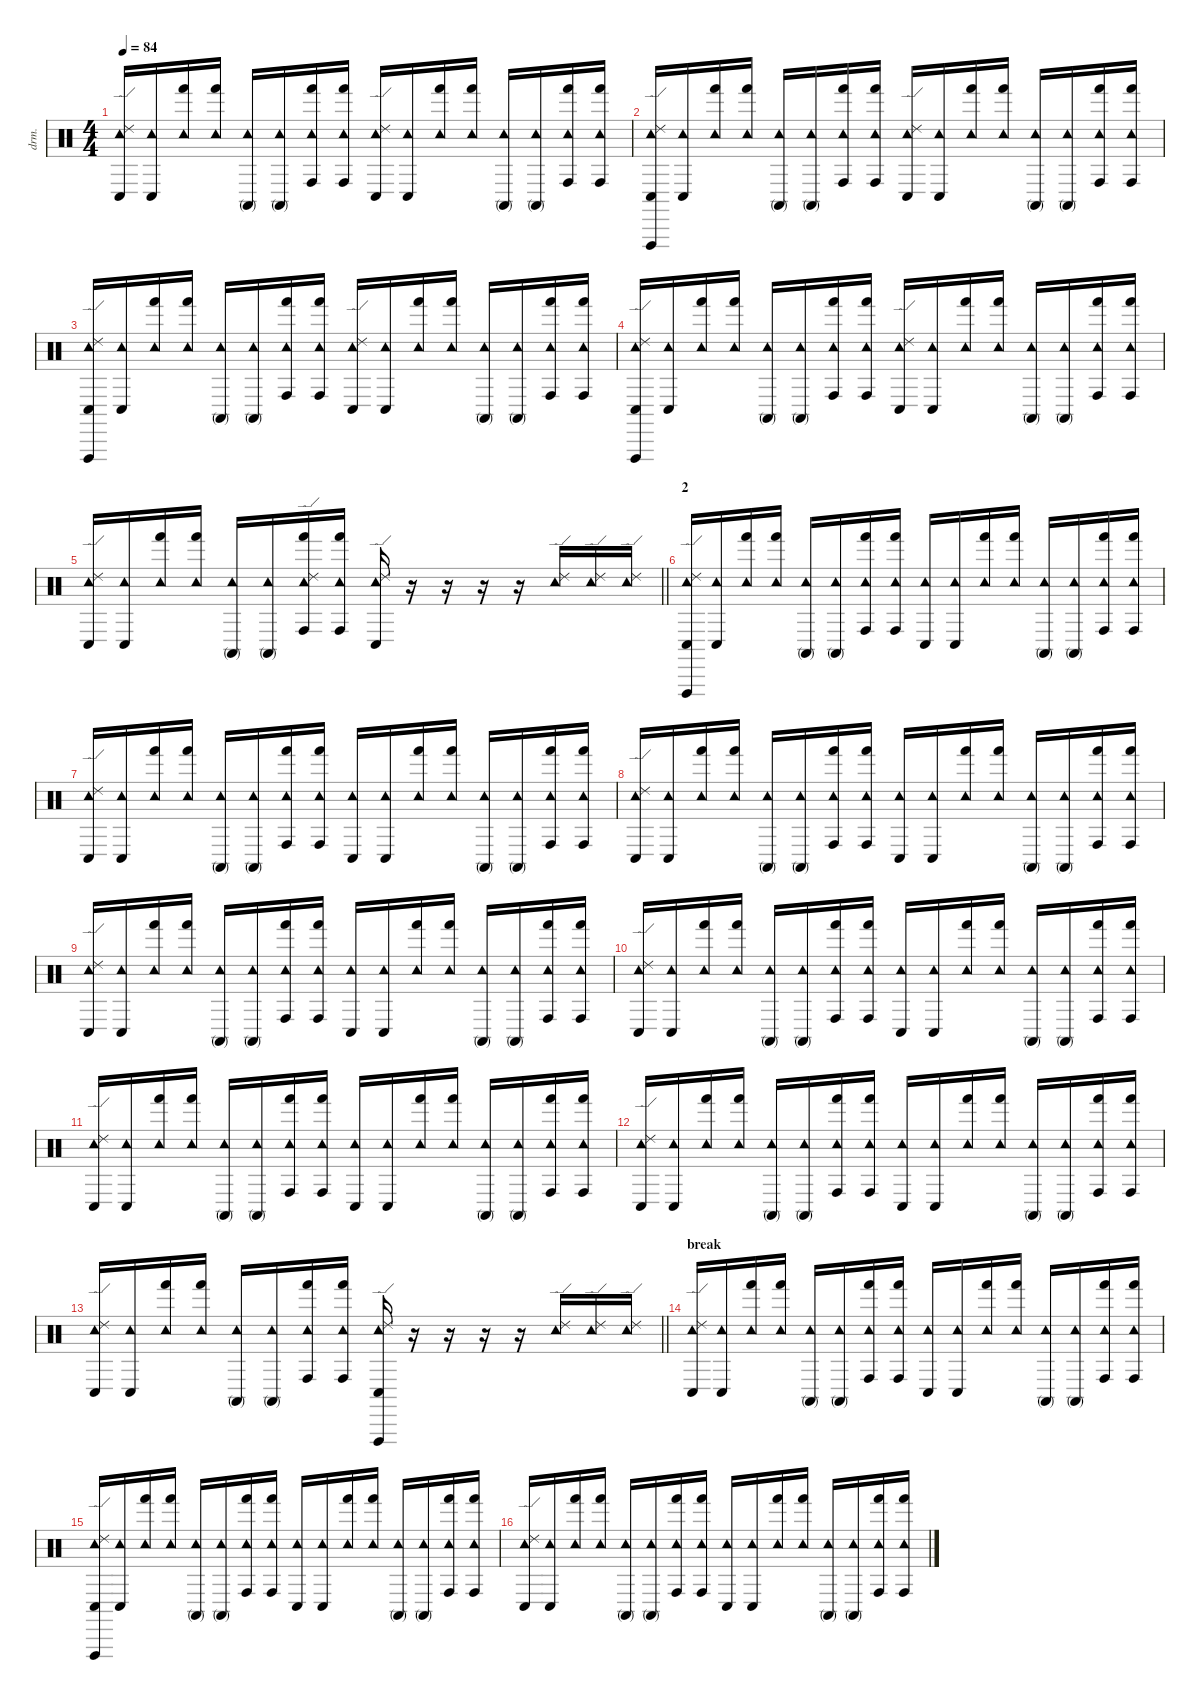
\defaultSystemsLayout 4
\hideDynamics
\bracketExtendMode nobrackets
\otherSystemsTrackNameOrientation horizontal
\track ("Conga + Tambourine" "drm.") {instrument percussion}
\staff {score}
\articulation defaults
\ts (4 4)
\tempo 84
\clef neutral
\ks c
("Conga low (hit)" "Tambourine (hit)" "Ride (edge) 2").16{dy f beam Up} ("Conga low (hit)" "Tambourine (hit)").16{beam Up} ("Hand (hit)" "Tambourine (hit)").16{beam Up} ("Hand (hit)" "Tambourine (hit)").16{beam Up} ("Conga high (mute)" "Tambourine (hit)").16{beam Up} ("Conga high (mute)" "Tambourine (hit)").16{beam Up} ("Conga high (hit)" "Hand (hit)" "Tambourine (hit)").16{beam Up} ("Conga high (hit)" "Hand (hit)" "Tambourine (hit)").16{beam Up} ("Conga low (hit)" "Tambourine (hit)" "Ride (edge) 2").16{beam Up} ("Conga low (hit)" "Tambourine (hit)").16{beam Up} ("Hand (hit)" "Tambourine (hit)").16{beam Up} ("Hand (hit)" "Tambourine (hit)").16{beam Up} ("Conga high (mute)" "Tambourine (hit)").16{beam Up} ("Conga high (mute)" "Tambourine (hit)").16{beam Up} ("Conga high (hit)" "Hand (hit)" "Tambourine (hit)").16{beam Up} ("Conga high (hit)" "Hand (hit)" "Tambourine (hit)").16{beam Up} |
("Conga low (hit)" "Vibraslap (hit)" "Tambourine (hit)" "Ride (edge) 2").16{beam Up} ("Conga low (hit)" "Tambourine (hit)").16{beam Up} ("Hand (hit)" "Tambourine (hit)").16{beam Up} ("Hand (hit)" "Tambourine (hit)").16{beam Up} ("Conga high (mute)" "Tambourine (hit)").16{beam Up} ("Conga high (mute)" "Tambourine (hit)").16{beam Up} ("Conga high (hit)" "Hand (hit)" "Tambourine (hit)").16{beam Up} ("Conga high (hit)" "Hand (hit)" "Tambourine (hit)").16{beam Up} ("Conga low (hit)" "Tambourine (hit)" "Ride (edge) 2").16{beam Up} ("Conga low (hit)" "Tambourine (hit)").16{beam Up} ("Hand (hit)" "Tambourine (hit)").16{beam Up} ("Hand (hit)" "Tambourine (hit)").16{beam Up} ("Conga high (mute)" "Tambourine (hit)").16{beam Up} ("Conga high (mute)" "Tambourine (hit)").16{beam Up} ("Conga high (hit)" "Hand (hit)" "Tambourine (hit)").16{beam Up} ("Conga high (hit)" "Hand (hit)" "Tambourine (hit)").16{beam Up} |
("Conga low (hit)" "Vibraslap (hit)" "Tambourine (hit)" "Ride (edge) 2").16{beam Up} ("Conga low (hit)" "Tambourine (hit)").16{beam Up} ("Hand (hit)" "Tambourine (hit)").16{beam Up} ("Hand (hit)" "Tambourine (hit)").16{beam Up} ("Conga high (mute)" "Tambourine (hit)").16{beam Up} ("Conga high (mute)" "Tambourine (hit)").16{beam Up} ("Conga high (hit)" "Hand (hit)" "Tambourine (hit)").16{beam Up} ("Conga high (hit)" "Hand (hit)" "Tambourine (hit)").16{beam Up} ("Conga low (hit)" "Tambourine (hit)" "Ride (edge) 2").16{beam Up} ("Conga low (hit)" "Tambourine (hit)").16{beam Up} ("Hand (hit)" "Tambourine (hit)").16{beam Up} ("Hand (hit)" "Tambourine (hit)").16{beam Up} ("Conga high (mute)" "Tambourine (hit)").16{beam Up} ("Conga high (mute)" "Tambourine (hit)").16{beam Up} ("Conga high (hit)" "Hand (hit)" "Tambourine (hit)").16{beam Up} ("Conga high (hit)" "Hand (hit)" "Tambourine (hit)").16{beam Up} |
("Conga low (hit)" "Vibraslap (hit)" "Tambourine (hit)" "Ride (edge) 2").16{beam Up} ("Conga low (hit)" "Tambourine (hit)").16{beam Up} ("Hand (hit)" "Tambourine (hit)").16{beam Up} ("Hand (hit)" "Tambourine (hit)").16{beam Up} ("Conga high (mute)" "Tambourine (hit)").16{beam Up} ("Conga high (mute)" "Tambourine (hit)").16{beam Up} ("Conga high (hit)" "Hand (hit)" "Tambourine (hit)").16{beam Up} ("Conga high (hit)" "Hand (hit)" "Tambourine (hit)").16{beam Up} ("Conga low (hit)" "Tambourine (hit)" "Ride (edge) 2").16{beam Up} ("Conga low (hit)" "Tambourine (hit)").16{beam Up} ("Hand (hit)" "Tambourine (hit)").16{beam Up} ("Hand (hit)" "Tambourine (hit)").16{beam Up} ("Conga high (mute)" "Tambourine (hit)").16{beam Up} ("Conga high (mute)" "Tambourine (hit)").16{beam Up} ("Conga high (hit)" "Hand (hit)" "Tambourine (hit)").16{beam Up} ("Conga high (hit)" "Hand (hit)" "Tambourine (hit)").16{beam Up} |
\barLineRight lightlight
("Conga low (hit)" "Tambourine (hit)" "Ride (edge) 2").16{beam Up} ("Conga low (hit)" "Tambourine (hit)").16{beam Up} ("Hand (hit)" "Tambourine (hit)").16{beam Up} ("Hand (hit)" "Tambourine (hit)").16{beam Up} ("Conga high (mute)" "Tambourine (hit)").16{beam Up} ("Conga high (mute)" "Tambourine (hit)").16{beam Up} ("Conga high (hit)" "Hand (hit)" "Tambourine (hit)" "Ride (edge) 2").16{beam Up} ("Conga high (hit)" "Hand (hit)" "Tambourine (hit)").16{beam Up} ("Conga low (hit)" "Tambourine (hit)" "Ride (edge) 2").16{beam Up} r.16{beam Up} r.16{beam Up} r.16{beam Up} r.16{beam Up} ("Tambourine (hit)" "Ride (edge) 2").16{dy mp beam Down} ("Tambourine (hit)" "Ride (edge) 2").16{dy mf beam Down} ("Tambourine (hit)" "Ride (edge) 2").16{dy f beam Down} |
\section ("" "2")
("Conga low (hit)" "Vibraslap (hit)" "Tambourine (hit)" "Ride (edge) 2").16{beam Up} ("Conga low (hit)" "Tambourine (hit)").16{beam Up} ("Hand (hit)" "Tambourine (hit)").16{beam Up} ("Hand (hit)" "Tambourine (hit)").16{beam Up} ("Conga high (mute)" "Tambourine (hit)").16{beam Up} ("Conga high (mute)" "Tambourine (hit)").16{beam Up} ("Conga high (hit)" "Hand (hit)" "Tambourine (hit)").16{beam Up} ("Conga high (hit)" "Hand (hit)" "Tambourine (hit)").16{beam Up} ("Conga low (hit)" "Tambourine (hit)").16{beam Up} ("Conga low (hit)" "Tambourine (hit)").16{beam Up} ("Hand (hit)" "Tambourine (hit)").16{beam Up} ("Hand (hit)" "Tambourine (hit)").16{beam Up} ("Conga high (mute)" "Tambourine (hit)").16{beam Up} ("Conga high (mute)" "Tambourine (hit)").16{beam Up} ("Conga high (hit)" "Hand (hit)" "Tambourine (hit)").16{beam Up} ("Conga high (hit)" "Hand (hit)" "Tambourine (hit)").16{beam Up} |
("Conga low (hit)" "Tambourine (hit)" "Ride (edge) 2").16{beam Up} ("Conga low (hit)" "Tambourine (hit)").16{beam Up} ("Hand (hit)" "Tambourine (hit)").16{beam Up} ("Hand (hit)" "Tambourine (hit)").16{beam Up} ("Conga high (mute)" "Tambourine (hit)").16{beam Up} ("Conga high (mute)" "Tambourine (hit)").16{beam Up} ("Conga high (hit)" "Hand (hit)" "Tambourine (hit)").16{beam Up} ("Conga high (hit)" "Hand (hit)" "Tambourine (hit)").16{beam Up} ("Conga low (hit)" "Tambourine (hit)").16{beam Up} ("Conga low (hit)" "Tambourine (hit)").16{beam Up} ("Hand (hit)" "Tambourine (hit)").16{beam Up} ("Hand (hit)" "Tambourine (hit)").16{beam Up} ("Conga high (mute)" "Tambourine (hit)").16{beam Up} ("Conga high (mute)" "Tambourine (hit)").16{beam Up} ("Conga high (hit)" "Hand (hit)" "Tambourine (hit)").16{beam Up} ("Conga high (hit)" "Hand (hit)" "Tambourine (hit)").16{beam Up} |
("Conga low (hit)" "Tambourine (hit)" "Ride (edge) 2").16{beam Up} ("Conga low (hit)" "Tambourine (hit)").16{beam Up} ("Hand (hit)" "Tambourine (hit)").16{beam Up} ("Hand (hit)" "Tambourine (hit)").16{beam Up} ("Conga high (mute)" "Tambourine (hit)").16{beam Up} ("Conga high (mute)" "Tambourine (hit)").16{beam Up} ("Conga high (hit)" "Hand (hit)" "Tambourine (hit)").16{beam Up} ("Conga high (hit)" "Hand (hit)" "Tambourine (hit)").16{beam Up} ("Conga low (hit)" "Tambourine (hit)").16{beam Up} ("Conga low (hit)" "Tambourine (hit)").16{beam Up} ("Hand (hit)" "Tambourine (hit)").16{beam Up} ("Hand (hit)" "Tambourine (hit)").16{beam Up} ("Conga high (mute)" "Tambourine (hit)").16{beam Up} ("Conga high (mute)" "Tambourine (hit)").16{beam Up} ("Conga high (hit)" "Hand (hit)" "Tambourine (hit)").16{beam Up} ("Conga high (hit)" "Hand (hit)" "Tambourine (hit)").16{beam Up} |
("Conga low (hit)" "Tambourine (hit)" "Ride (edge) 2").16{beam Up} ("Conga low (hit)" "Tambourine (hit)").16{beam Up} ("Hand (hit)" "Tambourine (hit)").16{beam Up} ("Hand (hit)" "Tambourine (hit)").16{beam Up} ("Conga high (mute)" "Tambourine (hit)").16{beam Up} ("Conga high (mute)" "Tambourine (hit)").16{beam Up} ("Conga high (hit)" "Hand (hit)" "Tambourine (hit)").16{beam Up} ("Conga high (hit)" "Hand (hit)" "Tambourine (hit)").16{beam Up} ("Conga low (hit)" "Tambourine (hit)").16{beam Up} ("Conga low (hit)" "Tambourine (hit)").16{beam Up} ("Hand (hit)" "Tambourine (hit)").16{beam Up} ("Hand (hit)" "Tambourine (hit)").16{beam Up} ("Conga high (mute)" "Tambourine (hit)").16{beam Up} ("Conga high (mute)" "Tambourine (hit)").16{beam Up} ("Conga high (hit)" "Hand (hit)" "Tambourine (hit)").16{beam Up} ("Conga high (hit)" "Hand (hit)" "Tambourine (hit)").16{beam Up} |
("Conga low (hit)" "Tambourine (hit)" "Ride (edge) 2").16{beam Up} ("Conga low (hit)" "Tambourine (hit)").16{beam Up} ("Hand (hit)" "Tambourine (hit)").16{beam Up} ("Hand (hit)" "Tambourine (hit)").16{beam Up} ("Conga high (mute)" "Tambourine (hit)").16{beam Up} ("Conga high (mute)" "Tambourine (hit)").16{beam Up} ("Conga high (hit)" "Hand (hit)" "Tambourine (hit)").16{beam Up} ("Conga high (hit)" "Hand (hit)" "Tambourine (hit)").16{beam Up} ("Conga low (hit)" "Tambourine (hit)").16{beam Up} ("Conga low (hit)" "Tambourine (hit)").16{beam Up} ("Hand (hit)" "Tambourine (hit)").16{beam Up} ("Hand (hit)" "Tambourine (hit)").16{beam Up} ("Conga high (mute)" "Tambourine (hit)").16{beam Up} ("Conga high (mute)" "Tambourine (hit)").16{beam Up} ("Conga high (hit)" "Hand (hit)" "Tambourine (hit)").16{beam Up} ("Conga high (hit)" "Hand (hit)" "Tambourine (hit)").16{beam Up} |
("Conga low (hit)" "Tambourine (hit)" "Ride (edge) 2").16{beam Up} ("Conga low (hit)" "Tambourine (hit)").16{beam Up} ("Hand (hit)" "Tambourine (hit)").16{beam Up} ("Hand (hit)" "Tambourine (hit)").16{beam Up} ("Conga high (mute)" "Tambourine (hit)").16{beam Up} ("Conga high (mute)" "Tambourine (hit)").16{beam Up} ("Conga high (hit)" "Hand (hit)" "Tambourine (hit)").16{beam Up} ("Conga high (hit)" "Hand (hit)" "Tambourine (hit)").16{beam Up} ("Conga low (hit)" "Tambourine (hit)").16{beam Up} ("Conga low (hit)" "Tambourine (hit)").16{beam Up} ("Hand (hit)" "Tambourine (hit)").16{beam Up} ("Hand (hit)" "Tambourine (hit)").16{beam Up} ("Conga high (mute)" "Tambourine (hit)").16{beam Up} ("Conga high (mute)" "Tambourine (hit)").16{beam Up} ("Conga high (hit)" "Hand (hit)" "Tambourine (hit)").16{beam Up} ("Conga high (hit)" "Hand (hit)" "Tambourine (hit)").16{beam Up} |
("Conga low (hit)" "Tambourine (hit)" "Ride (edge) 2").16{beam Up} ("Conga low (hit)" "Tambourine (hit)").16{beam Up} ("Hand (hit)" "Tambourine (hit)").16{beam Up} ("Hand (hit)" "Tambourine (hit)").16{beam Up} ("Conga high (mute)" "Tambourine (hit)").16{beam Up} ("Conga high (mute)" "Tambourine (hit)").16{beam Up} ("Conga high (hit)" "Hand (hit)" "Tambourine (hit)").16{beam Up} ("Conga high (hit)" "Hand (hit)" "Tambourine (hit)").16{beam Up} ("Conga low (hit)" "Tambourine (hit)").16{beam Up} ("Conga low (hit)" "Tambourine (hit)").16{beam Up} ("Hand (hit)" "Tambourine (hit)").16{beam Up} ("Hand (hit)" "Tambourine (hit)").16{beam Up} ("Conga high (mute)" "Tambourine (hit)").16{beam Up} ("Conga high (mute)" "Tambourine (hit)").16{beam Up} ("Conga high (hit)" "Hand (hit)" "Tambourine (hit)").16{beam Up} ("Conga high (hit)" "Hand (hit)" "Tambourine (hit)").16{beam Up} |
\barLineRight lightlight
("Conga low (hit)" "Tambourine (hit)" "Ride (edge) 2").16{beam Up} ("Conga low (hit)" "Tambourine (hit)").16{beam Up} ("Hand (hit)" "Tambourine (hit)").16{beam Up} ("Hand (hit)" "Tambourine (hit)").16{beam Up} ("Conga high (mute)" "Tambourine (hit)").16{beam Up} ("Conga high (mute)" "Tambourine (hit)").16{beam Up} ("Conga high (hit)" "Hand (hit)" "Tambourine (hit)").16{beam Up} ("Conga high (hit)" "Hand (hit)" "Tambourine (hit)").16{beam Up} ("Conga low (hit)" "Vibraslap (hit)" "Tambourine (hit)" "Ride (edge) 2").16{beam Up} r.16{beam Up} r.16{beam Up} r.16{beam Up} r.16{beam Up} ("Tambourine (hit)" "Ride (edge) 2").16{dy mp beam Down} ("Tambourine (hit)" "Ride (edge) 2").16{dy mf beam Down} ("Tambourine (hit)" "Ride (edge) 2").16{dy f beam Down} |
\section ("" "break")
("Conga low (hit)" "Tambourine (hit)" "Ride (edge) 2").16{beam Up} ("Conga low (hit)" "Tambourine (hit)").16{beam Up} ("Hand (hit)" "Tambourine (hit)").16{beam Up} ("Hand (hit)" "Tambourine (hit)").16{beam Up} ("Conga high (mute)" "Tambourine (hit)").16{beam Up} ("Conga high (mute)" "Tambourine (hit)").16{beam Up} ("Conga high (hit)" "Hand (hit)" "Tambourine (hit)").16{beam Up} ("Conga high (hit)" "Hand (hit)" "Tambourine (hit)").16{beam Up} ("Conga low (hit)" "Tambourine (hit)").16{beam Up} ("Conga low (hit)" "Tambourine (hit)").16{beam Up} ("Hand (hit)" "Tambourine (hit)").16{beam Up} ("Hand (hit)" "Tambourine (hit)").16{beam Up} ("Conga high (mute)" "Tambourine (hit)").16{beam Up} ("Conga high (mute)" "Tambourine (hit)").16{beam Up} ("Conga high (hit)" "Hand (hit)" "Tambourine (hit)").16{beam Up} ("Conga high (hit)" "Hand (hit)" "Tambourine (hit)").16{beam Up} |
("Conga low (hit)" "Vibraslap (hit)" "Tambourine (hit)" "Ride (edge) 2").16{beam Up} ("Conga low (hit)" "Tambourine (hit)").16{beam Up} ("Hand (hit)" "Tambourine (hit)").16{beam Up} ("Hand (hit)" "Tambourine (hit)").16{beam Up} ("Conga high (mute)" "Tambourine (hit)").16{beam Up} ("Conga high (mute)" "Tambourine (hit)").16{beam Up} ("Conga high (hit)" "Hand (hit)" "Tambourine (hit)").16{beam Up} ("Conga high (hit)" "Hand (hit)" "Tambourine (hit)").16{beam Up} ("Conga low (hit)" "Tambourine (hit)").16{beam Up} ("Conga low (hit)" "Tambourine (hit)").16{beam Up} ("Hand (hit)" "Tambourine (hit)").16{beam Up} ("Hand (hit)" "Tambourine (hit)").16{beam Up} ("Conga high (mute)" "Tambourine (hit)").16{beam Up} ("Conga high (mute)" "Tambourine (hit)").16{beam Up} ("Conga high (hit)" "Hand (hit)" "Tambourine (hit)").16{beam Up} ("Conga high (hit)" "Hand (hit)" "Tambourine (hit)").16{beam Up} |
("Conga low (hit)" "Tambourine (hit)" "Ride (edge) 2").16{beam Up} ("Conga low (hit)" "Tambourine (hit)").16{beam Up} ("Hand (hit)" "Tambourine (hit)").16{beam Up} ("Hand (hit)" "Tambourine (hit)").16{beam Up} ("Conga high (mute)" "Tambourine (hit)").16{beam Up} ("Conga high (mute)" "Tambourine (hit)").16{beam Up} ("Conga high (hit)" "Hand (hit)" "Tambourine (hit)").16{beam Up} ("Conga high (hit)" "Hand (hit)" "Tambourine (hit)").16{beam Up} ("Conga low (hit)" "Tambourine (hit)").16{beam Up} ("Conga low (hit)" "Tambourine (hit)").16{beam Up} ("Hand (hit)" "Tambourine (hit)").16{beam Up} ("Hand (hit)" "Tambourine (hit)").16{beam Up} ("Conga high (mute)" "Tambourine (hit)").16{beam Up} ("Conga high (mute)" "Tambourine (hit)").16{beam Up} ("Conga high (hit)" "Hand (hit)" "Tambourine (hit)").16{beam Up} ("Conga high (hit)" "Hand (hit)" "Tambourine (hit)").16{beam Up}
